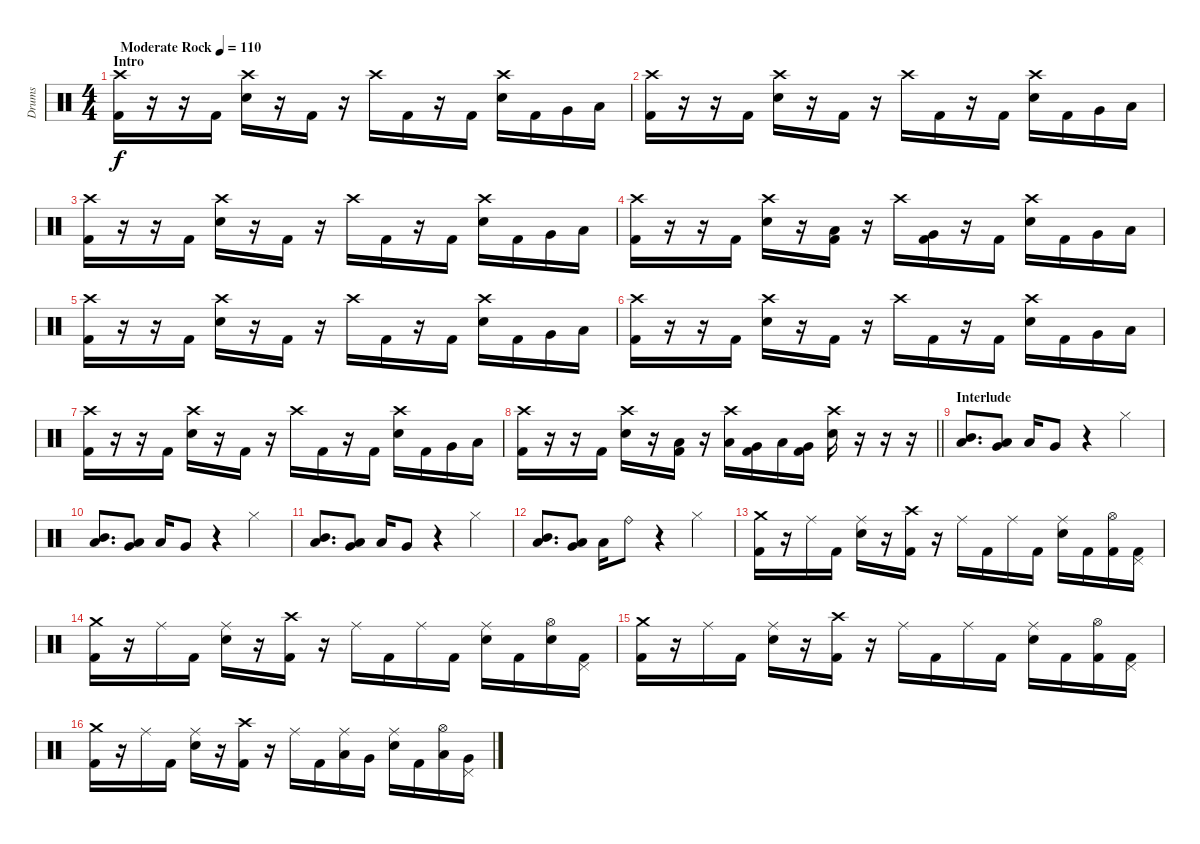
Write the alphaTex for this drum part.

\track ("Drums" "Drums") {instrument percussion}
\staff {score}
\articulation defaults
\ts (4 4)
\section ("" "Intro")
\tempo (110 "Moderate Rock")
\clef neutral
\ks c
("Crash high (hit)" "Kick (hit) 2").16{dy f} r.16 r.16 "Kick (hit) 2".16 ("Crash high (hit)" "Snare (hit) 2").16 r.16 "Kick (hit) 2".16 r.16 "Crash high (hit)".16 "Kick (hit) 2".16 r.16 "Kick (hit) 2".16 ("Crash high (hit)" "Snare (hit) 2").16 "Kick (hit) 2".16 "Very Low Tom (hit)".16 "Low Tom (hit)".16 |
("Crash high (hit)" "Kick (hit) 2").16 r.16 r.16 "Kick (hit) 2".16 ("Crash high (hit)" "Snare (hit) 2").16 r.16 "Kick (hit) 2".16 r.16 "Crash high (hit)".16 "Kick (hit) 2".16 r.16 "Kick (hit) 2".16 ("Crash high (hit)" "Snare (hit) 2").16 "Kick (hit) 2".16 "Very Low Tom (hit)".16 "Low Tom (hit)".16 |
("Crash high (hit)" "Kick (hit) 2").16 r.16 r.16 "Kick (hit) 2".16 ("Crash high (hit)" "Snare (hit) 2").16 r.16 "Kick (hit) 2".16 r.16 "Crash high (hit)".16 "Kick (hit) 2".16 r.16 "Kick (hit) 2".16 ("Crash high (hit)" "Snare (hit) 2").16 "Kick (hit) 2".16 "Very Low Tom (hit)".16 "Low Tom (hit)".16 |
("Crash high (hit)" "Kick (hit) 2").16 r.16 r.16 "Kick (hit) 2".16 ("Crash high (hit)" "Snare (hit) 2").16 r.16 ("Low Tom (hit)" "Kick (hit) 2").16 r.16 "Crash high (hit)".16 ("Very Low Tom (hit)" "Kick (hit) 2").16 r.16 "Kick (hit) 2".16 ("Crash high (hit)" "Snare (hit) 2").16 "Kick (hit) 2".16 "Very Low Tom (hit)".16 "Low Tom (hit)".16 |
("Crash high (hit)" "Kick (hit) 2").16 r.16 r.16 "Kick (hit) 2".16 ("Crash high (hit)" "Snare (hit) 2").16 r.16 "Kick (hit) 2".16 r.16 "Crash high (hit)".16 "Kick (hit) 2".16 r.16 "Kick (hit) 2".16 ("Crash high (hit)" "Snare (hit) 2").16 "Kick (hit) 2".16 "Very Low Tom (hit)".16 "Low Tom (hit)".16 |
("Crash high (hit)" "Kick (hit) 2").16 r.16 r.16 "Kick (hit) 2".16 ("Crash high (hit)" "Snare (hit) 2").16 r.16 "Kick (hit) 2".16 r.16 "Crash high (hit)".16 "Kick (hit) 2".16 r.16 "Kick (hit) 2".16 ("Crash high (hit)" "Snare (hit) 2").16 "Kick (hit) 2".16 "Very Low Tom (hit)".16 "Low Tom (hit)".16 |
("Crash high (hit)" "Kick (hit) 2").16 r.16 r.16 "Kick (hit) 2".16 ("Crash high (hit)" "Snare (hit) 2").16 r.16 "Kick (hit) 2".16 r.16 "Crash high (hit)".16 "Kick (hit) 2".16 r.16 "Kick (hit) 2".16 ("Crash high (hit)" "Snare (hit) 2").16 "Kick (hit) 2".16 "Very Low Tom (hit)".16 "Low Tom (hit)".16 |
\barLineRight lightlight
("Crash high (hit)" "Kick (hit) 2").16 r.16 r.16 "Kick (hit) 2".16 ("Crash high (hit)" "Snare (hit) 2").16 r.16 ("Low Tom (hit)" "Kick (hit) 2").16 r.16 ("Crash high (hit)" "Low Tom (hit)").16 ("Very Low Tom (hit)" "Kick (hit) 2").16 "Low Tom (hit)".16 ("Very Low Tom (hit)" "Kick (hit) 2").16 ("Crash high (hit)" "Snare (hit) 2").16 r.16 r.16 r.16 |
\section ("" "Interlude")
("Mid Tom (hit)" "Low Tom (hit)").8{d} ("Low Tom (hit)" "Very Low Tom (hit)").8 "Low Tom (hit)".16 "Very Low Tom (hit)".8 r.4 "Hi-Hat (closed)".4 |
("Mid Tom (hit)" "Low Tom (hit)").8{d} ("Low Tom (hit)" "Very Low Tom (hit)").8 "Low Tom (hit)".16 "Very Low Tom (hit)".8 r.4 "Hi-Hat (closed)".4 |
("Mid Tom (hit)" "Low Tom (hit)").8{d} ("Low Tom (hit)" "Very Low Tom (hit)").8 "Low Tom (hit)".16 "Very Low Tom (hit)".8 r.4 "Hi-Hat (closed)".4 |
("Mid Tom (hit)" "Low Tom (hit)").8{d} ("Low Tom (hit)" "Very Low Tom (hit)").8 "Low Tom (hit)".16 "Ride (bell)".8 r.4 "Hi-Hat (closed)".4 |
("Crash medium (hit)" "Kick (hit) 2").16 r.16 "Ride (middle)".16 "Kick (hit) 2".16 ("Ride (middle)" "Snare (hit) 2").16 r.16 ("Crash high (hit)" "Kick (hit) 2").16 r.16 "Ride (middle)".16 "Kick (hit) 2".16 "Ride (middle)".16 "Kick (hit) 2".16 ("Ride (middle)" "Snare (hit) 2").16 "Kick (hit) 2".16 ("Hi-Hat (open)" "Kick (hit) 2").16 ("Pedal Hi-Hat (hit)" "Kick (hit) 2").16 |
("Crash medium (hit)" "Kick (hit) 2").16 r.16 "Ride (middle)".16 "Kick (hit) 2".16 ("Ride (middle)" "Snare (hit) 2").16 r.16 ("Crash high (hit)" "Kick (hit) 2").16 r.16 "Ride (middle)".16 "Kick (hit) 2".16 "Ride (middle)".16 "Kick (hit) 2".16 ("Ride (middle)" "Snare (hit) 2").16 "Kick (hit) 2".16 ("Hi-Hat (open)" "Snare (hit) 2").16 ("Pedal Hi-Hat (hit)" "Kick (hit) 2").16 |
("Crash medium (hit)" "Kick (hit) 2").16 r.16 "Ride (middle)".16 "Kick (hit) 2".16 ("Ride (middle)" "Snare (hit) 2").16 r.16 ("Crash high (hit)" "Kick (hit) 2").16 r.16 "Ride (middle)".16 "Kick (hit) 2".16 "Ride (middle)".16 "Kick (hit) 2".16 ("Ride (middle)" "Snare (hit) 2").16 "Kick (hit) 2".16 ("Hi-Hat (open)" "Kick (hit) 2").16 ("Pedal Hi-Hat (hit)" "Kick (hit) 2").16 |
("Crash medium (hit)" "Kick (hit) 2").16 r.16 "Ride (middle)".16 "Kick (hit) 2".16 ("Ride (middle)" "Snare (hit) 2").16 r.16 ("Crash high (hit)" "Kick (hit) 2").16 r.16 "Ride (middle)".16 "Kick (hit) 2".16 ("Ride (middle)" "Low Tom (hit)").16 "Very Low Tom (hit)".16 ("Ride (middle)" "Snare (hit) 2").16 "Kick (hit) 2".16 ("Hi-Hat (open)" "Low Tom (hit)").16 ("Pedal Hi-Hat (hit)" "Very Low Tom (hit)").16
